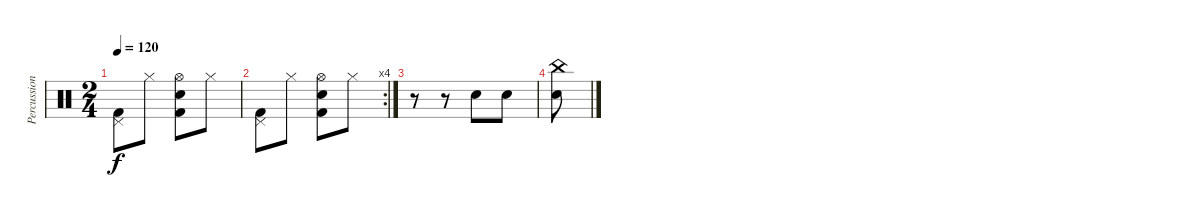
\track ("Percussion" "Percussion") {instrument percussion}
\staff {score}
\articulation defaults
\ts (2 4)
\tempo 120
\clef neutral
\ks c
("Pedal Hi-Hat (hit)" "Kick (hit) 2").8{dy f} "Hi-Hat (closed)".8 ("Electric Snare (hit)" "Hi-Hat (open)" "Kick (hit) 2").8 "Hi-Hat (closed)".8 |
\rc 4
("Pedal Hi-Hat (hit)" "Kick (hit) 2").8 "Hi-Hat (closed)".8 ("Electric Snare (hit)" "Hi-Hat (open)" "Kick (hit) 2").8 "Hi-Hat (closed)".8 |
r.8 r.8 "Electric Snare (hit)".8 "Electric Snare (hit)".8 |
("China (hit)" "Electric Snare (hit)").8
